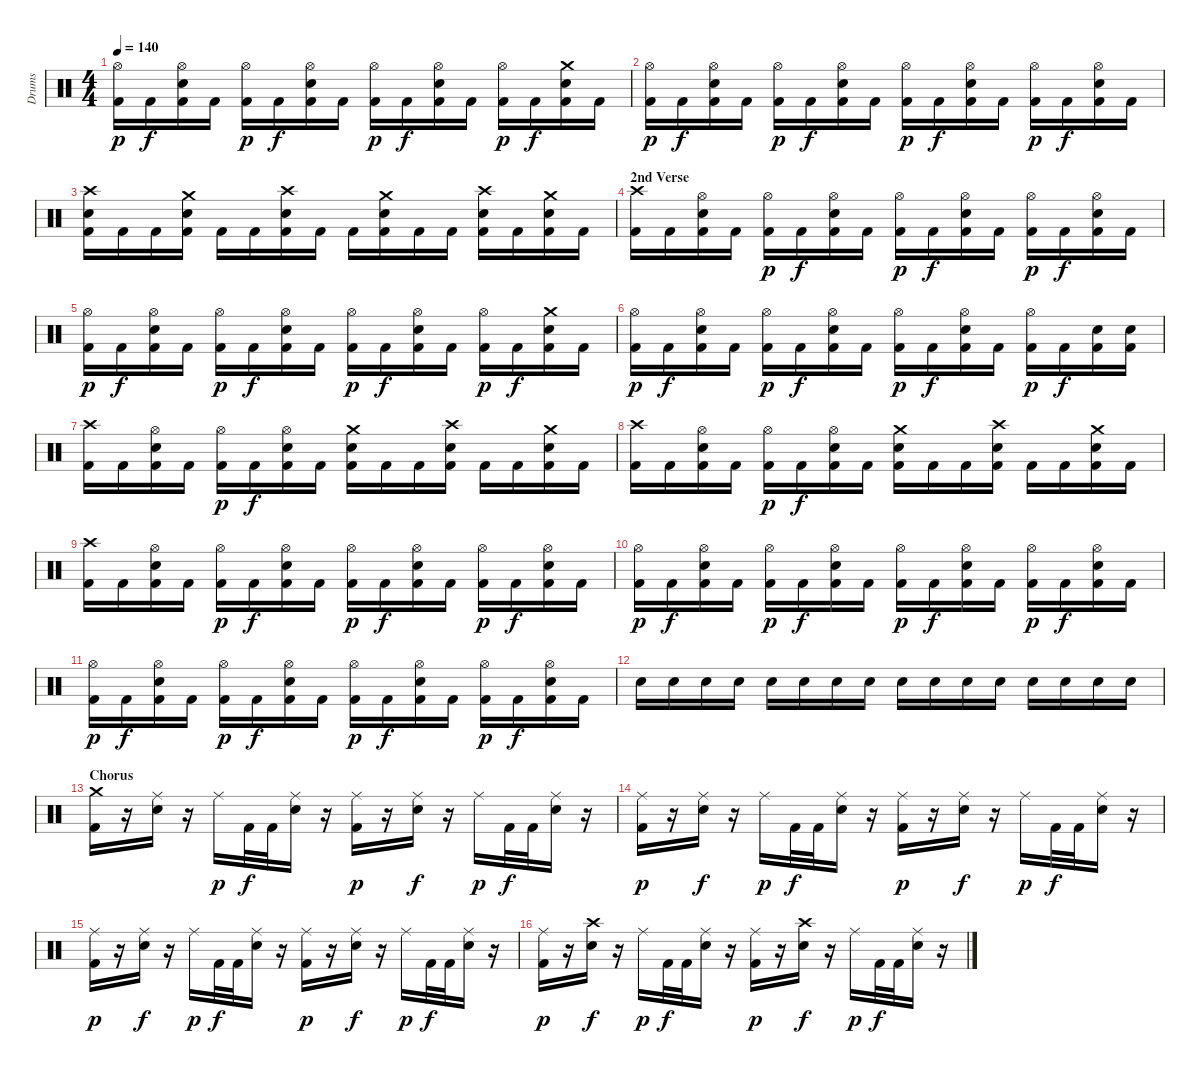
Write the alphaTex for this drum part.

\track ("Drums" "Drums") {instrument percussion}
\staff {score}
\articulation defaults
\ts (4 4)
\tempo 140
\clef neutral
\ks c
("Hi-Hat (open)" "Kick (hit) 2").16{dy p} "Kick (hit) 2".16{dy f} ("Hi-Hat (open)" "Snare (hit) 2" "Kick (hit) 2").16 "Kick (hit) 2".16 ("Hi-Hat (open)" "Kick (hit) 2").16{dy p} "Kick (hit) 2".16{dy f} ("Hi-Hat (open)" "Snare (hit) 2" "Kick (hit) 2").16 "Kick (hit) 2".16 ("Hi-Hat (open)" "Kick (hit) 2").16{dy p} "Kick (hit) 2".16{dy f} ("Hi-Hat (open)" "Snare (hit) 2" "Kick (hit) 2").16 "Kick (hit) 2".16 ("Hi-Hat (open)" "Kick (hit) 2").16{dy p} "Kick (hit) 2".16{dy f} ("Crash medium (hit)" "Snare (hit) 2" "Kick (hit) 2").16 "Kick (hit) 2".16 |
("Hi-Hat (open)" "Kick (hit) 2").16{dy p} "Kick (hit) 2".16{dy f} ("Hi-Hat (open)" "Snare (hit) 2" "Kick (hit) 2").16 "Kick (hit) 2".16 ("Hi-Hat (open)" "Kick (hit) 2").16{dy p} "Kick (hit) 2".16{dy f} ("Hi-Hat (open)" "Snare (hit) 2" "Kick (hit) 2").16 "Kick (hit) 2".16 ("Hi-Hat (open)" "Kick (hit) 2").16{dy p} "Kick (hit) 2".16{dy f} ("Hi-Hat (open)" "Snare (hit) 2" "Kick (hit) 2").16 "Kick (hit) 2".16 ("Hi-Hat (open)" "Kick (hit) 2").16{dy p} "Kick (hit) 2".16{dy f} ("Hi-Hat (open)" "Snare (hit) 2" "Kick (hit) 2").16 "Kick (hit) 2".16 |
("Crash high (hit)" "Snare (hit) 2" "Kick (hit) 2").16 "Kick (hit) 2".16 "Kick (hit) 2".16 ("Crash medium (hit)" "Snare (hit) 2" "Kick (hit) 2").16 "Kick (hit) 2".16 "Kick (hit) 2".16 ("Crash high (hit)" "Snare (hit) 2" "Kick (hit) 2").16 "Kick (hit) 2".16 "Kick (hit) 2".16 ("Crash medium (hit)" "Snare (hit) 2" "Kick (hit) 2").16 "Kick (hit) 2".16 "Kick (hit) 2".16 ("Crash high (hit)" "Snare (hit) 2" "Kick (hit) 2").16 "Kick (hit) 2".16 ("Crash medium (hit)" "Snare (hit) 2" "Kick (hit) 2").16 "Kick (hit) 2".16 |
\section ("" "2nd Verse")
("Crash high (hit)" "Kick (hit) 2").16 "Kick (hit) 2".16 ("Hi-Hat (open)" "Snare (hit) 2" "Kick (hit) 2").16 "Kick (hit) 2".16 ("Hi-Hat (open)" "Kick (hit) 2").16{dy p} "Kick (hit) 2".16{dy f} ("Hi-Hat (open)" "Snare (hit) 2" "Kick (hit) 2").16 "Kick (hit) 2".16 ("Hi-Hat (open)" "Kick (hit) 2").16{dy p} "Kick (hit) 2".16{dy f} ("Hi-Hat (open)" "Snare (hit) 2" "Kick (hit) 2").16 "Kick (hit) 2".16 ("Hi-Hat (open)" "Kick (hit) 2").16{dy p} "Kick (hit) 2".16{dy f} ("Hi-Hat (open)" "Snare (hit) 2" "Kick (hit) 2").16 "Kick (hit) 2".16 |
("Hi-Hat (open)" "Kick (hit) 2").16{dy p} "Kick (hit) 2".16{dy f} ("Hi-Hat (open)" "Snare (hit) 2" "Kick (hit) 2").16 "Kick (hit) 2".16 ("Hi-Hat (open)" "Kick (hit) 2").16{dy p} "Kick (hit) 2".16{dy f} ("Hi-Hat (open)" "Snare (hit) 2" "Kick (hit) 2").16 "Kick (hit) 2".16 ("Hi-Hat (open)" "Kick (hit) 2").16{dy p} "Kick (hit) 2".16{dy f} ("Hi-Hat (open)" "Snare (hit) 2" "Kick (hit) 2").16 "Kick (hit) 2".16 ("Hi-Hat (open)" "Kick (hit) 2").16{dy p} "Kick (hit) 2".16{dy f} ("Crash medium (hit)" "Snare (hit) 2" "Kick (hit) 2").16 "Kick (hit) 2".16 |
("Hi-Hat (open)" "Kick (hit) 2").16{dy p} "Kick (hit) 2".16{dy f} ("Hi-Hat (open)" "Snare (hit) 2" "Kick (hit) 2").16 "Kick (hit) 2".16 ("Hi-Hat (open)" "Kick (hit) 2").16{dy p} "Kick (hit) 2".16{dy f} ("Hi-Hat (open)" "Snare (hit) 2" "Kick (hit) 2").16 "Kick (hit) 2".16 ("Hi-Hat (open)" "Kick (hit) 2").16{dy p} "Kick (hit) 2".16{dy f} ("Hi-Hat (open)" "Snare (hit) 2" "Kick (hit) 2").16 "Kick (hit) 2".16 ("Hi-Hat (open)" "Kick (hit) 2").16{dy p} "Kick (hit) 2".16{dy f} ("Snare (hit) 2" "Kick (hit) 2").16 ("Snare (hit) 2" "Kick (hit) 2").16 |
("Crash high (hit)" "Kick (hit) 2").16 "Kick (hit) 2".16 ("Hi-Hat (open)" "Snare (hit) 2" "Kick (hit) 2").16 "Kick (hit) 2".16 ("Hi-Hat (open)" "Kick (hit) 2").16{dy p} "Kick (hit) 2".16{dy f} ("Hi-Hat (open)" "Snare (hit) 2" "Kick (hit) 2").16 "Kick (hit) 2".16 ("Crash medium (hit)" "Snare (hit) 2" "Kick (hit) 2").16 "Kick (hit) 2".16 "Kick (hit) 2".16 ("Crash high (hit)" "Snare (hit) 2" "Kick (hit) 2").16 "Kick (hit) 2".16 "Kick (hit) 2".16 ("Crash medium (hit)" "Snare (hit) 2" "Kick (hit) 2").16 "Kick (hit) 2".16 |
("Crash high (hit)" "Kick (hit) 2").16 "Kick (hit) 2".16 ("Hi-Hat (open)" "Snare (hit) 2" "Kick (hit) 2").16 "Kick (hit) 2".16 ("Hi-Hat (open)" "Kick (hit) 2").16{dy p} "Kick (hit) 2".16{dy f} ("Hi-Hat (open)" "Snare (hit) 2" "Kick (hit) 2").16 "Kick (hit) 2".16 ("Crash medium (hit)" "Snare (hit) 2" "Kick (hit) 2").16 "Kick (hit) 2".16 "Kick (hit) 2".16 ("Crash high (hit)" "Snare (hit) 2" "Kick (hit) 2").16 "Kick (hit) 2".16 "Kick (hit) 2".16 ("Crash medium (hit)" "Snare (hit) 2" "Kick (hit) 2").16 "Kick (hit) 2".16 |
("Crash high (hit)" "Kick (hit) 2").16 "Kick (hit) 2".16 ("Hi-Hat (open)" "Snare (hit) 2" "Kick (hit) 2").16 "Kick (hit) 2".16 ("Hi-Hat (open)" "Kick (hit) 2").16{dy p} "Kick (hit) 2".16{dy f} ("Hi-Hat (open)" "Snare (hit) 2" "Kick (hit) 2").16 "Kick (hit) 2".16 ("Hi-Hat (open)" "Kick (hit) 2").16{dy p} "Kick (hit) 2".16{dy f} ("Hi-Hat (open)" "Snare (hit) 2" "Kick (hit) 2").16 "Kick (hit) 2".16 ("Hi-Hat (open)" "Kick (hit) 2").16{dy p} "Kick (hit) 2".16{dy f} ("Hi-Hat (open)" "Snare (hit) 2" "Kick (hit) 2").16 "Kick (hit) 2".16 |
("Hi-Hat (open)" "Kick (hit) 2").16{dy p} "Kick (hit) 2".16{dy f} ("Hi-Hat (open)" "Snare (hit) 2" "Kick (hit) 2").16 "Kick (hit) 2".16 ("Hi-Hat (open)" "Kick (hit) 2").16{dy p} "Kick (hit) 2".16{dy f} ("Hi-Hat (open)" "Snare (hit) 2" "Kick (hit) 2").16 "Kick (hit) 2".16 ("Hi-Hat (open)" "Kick (hit) 2").16{dy p} "Kick (hit) 2".16{dy f} ("Hi-Hat (open)" "Snare (hit) 2" "Kick (hit) 2").16 "Kick (hit) 2".16 ("Hi-Hat (open)" "Kick (hit) 2").16{dy p} "Kick (hit) 2".16{dy f} ("Hi-Hat (open)" "Snare (hit) 2" "Kick (hit) 2").16 "Kick (hit) 2".16 |
("Hi-Hat (open)" "Kick (hit) 2").16{dy p} "Kick (hit) 2".16{dy f} ("Hi-Hat (open)" "Snare (hit) 2" "Kick (hit) 2").16 "Kick (hit) 2".16 ("Hi-Hat (open)" "Kick (hit) 2").16{dy p} "Kick (hit) 2".16{dy f} ("Hi-Hat (open)" "Snare (hit) 2" "Kick (hit) 2").16 "Kick (hit) 2".16 ("Hi-Hat (open)" "Kick (hit) 2").16{dy p} "Kick (hit) 2".16{dy f} ("Hi-Hat (open)" "Snare (hit) 2" "Kick (hit) 2").16 "Kick (hit) 2".16 ("Hi-Hat (open)" "Kick (hit) 2").16{dy p} "Kick (hit) 2".16{dy f} ("Hi-Hat (open)" "Snare (hit) 2" "Kick (hit) 2").16 "Kick (hit) 2".16 |
"Snare (hit) 2".16 "Snare (hit) 2".16 "Snare (hit) 2".16 "Snare (hit) 2".16 "Snare (hit) 2".16 "Snare (hit) 2".16 "Snare (hit) 2".16 "Snare (hit) 2".16 "Snare (hit) 2".16 "Snare (hit) 2".16 "Snare (hit) 2".16 "Snare (hit) 2".16 "Snare (hit) 2".16 "Snare (hit) 2".16 "Snare (hit) 2".16 "Snare (hit) 2".16 |
\section ("" "Chorus")
("Crash medium (hit)" "Kick (hit) 2").16 r.16 ("Ride (middle)" "Snare (hit) 2").16 r.16 "Ride (middle)".16{dy p} "Kick (hit) 2".32{dy f} "Kick (hit) 2".32 ("Ride (middle)" "Snare (hit) 2").16 r.16 ("Ride (middle)" "Kick (hit) 2").16{dy p} r.16 ("Ride (middle)" "Snare (hit) 2").16{dy f} r.16 "Ride (middle)".16{dy p} "Kick (hit) 2".32{dy f} "Kick (hit) 2".32 ("Ride (middle)" "Snare (hit) 2").16 r.16 |
("Ride (middle)" "Kick (hit) 2").16{dy p} r.16 ("Ride (middle)" "Snare (hit) 2").16{dy f} r.16 "Ride (middle)".16{dy p} "Kick (hit) 2".32{dy f} "Kick (hit) 2".32 ("Ride (middle)" "Snare (hit) 2").16 r.16 ("Ride (middle)" "Kick (hit) 2").16{dy p} r.16 ("Ride (middle)" "Snare (hit) 2").16{dy f} r.16 "Ride (middle)".16{dy p} "Kick (hit) 2".32{dy f} "Kick (hit) 2".32 ("Ride (middle)" "Snare (hit) 2").16 r.16 |
("Ride (middle)" "Kick (hit) 2").16{dy p} r.16 ("Ride (middle)" "Snare (hit) 2").16{dy f} r.16 "Ride (middle)".16{dy p} "Kick (hit) 2".32{dy f} "Kick (hit) 2".32 ("Ride (middle)" "Snare (hit) 2").16 r.16 ("Ride (middle)" "Kick (hit) 2").16{dy p} r.16 ("Ride (middle)" "Snare (hit) 2").16{dy f} r.16 "Ride (middle)".16{dy p} "Kick (hit) 2".32{dy f} "Kick (hit) 2".32 ("Ride (middle)" "Snare (hit) 2").16 r.16 |
("Ride (middle)" "Kick (hit) 2").16{dy p} r.16 ("Crash high (hit)" "Snare (hit) 2").16{dy f} r.16 "Ride (middle)".16{dy p} "Kick (hit) 2".32{dy f} "Kick (hit) 2".32 ("Ride (middle)" "Snare (hit) 2").16 r.16 ("Ride (middle)" "Kick (hit) 2").16{dy p} r.16 ("Crash high (hit)" "Snare (hit) 2").16{dy f} r.16 "Ride (middle)".16{dy p} "Kick (hit) 2".32{dy f} "Kick (hit) 2".32 ("Ride (middle)" "Snare (hit) 2").16 r.16
